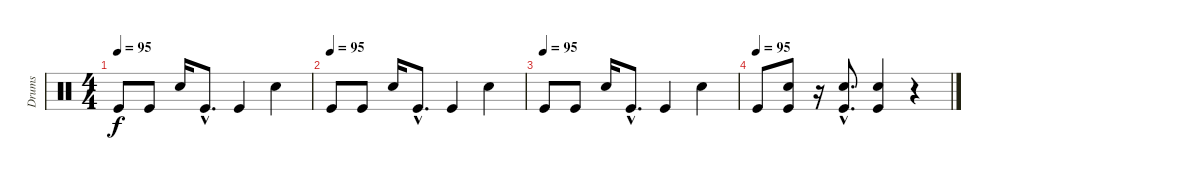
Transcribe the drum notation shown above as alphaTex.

\track ("Drums" "Drums") {instrument percussion}
\staff {score}
\articulation defaults
\ts (4 4)
\tempo 95
\clef neutral
\ks c "Kick (hit)".8{dy f} "Kick (hit)".8 "Snare (hit) 2".16 "Kick (hit)"{hac}.8{d} "Kick (hit)".4 "Snare (hit) 2".4
|
\tempo (95)
"Kick (hit)".8 "Kick (hit)".8 "Snare (hit) 2".16 "Kick (hit)"{hac}.8{d} "Kick (hit)".4 "Snare (hit) 2".4 |
\tempo (95)
"Kick (hit)".8 "Kick (hit)".8 "Snare (hit) 2".16 "Kick (hit)"{hac}.8{d} "Kick (hit)".4 "Snare (hit) 2".4 |
\tempo (95)
"Kick (hit)".8 ("Snare (hit) 2" "Kick (hit)").8 r.16 ("Snare (hit) 2"{hac} "Kick (hit)"{hac}).8{d} ("Snare (hit) 2" "Kick (hit)").4 r.4
